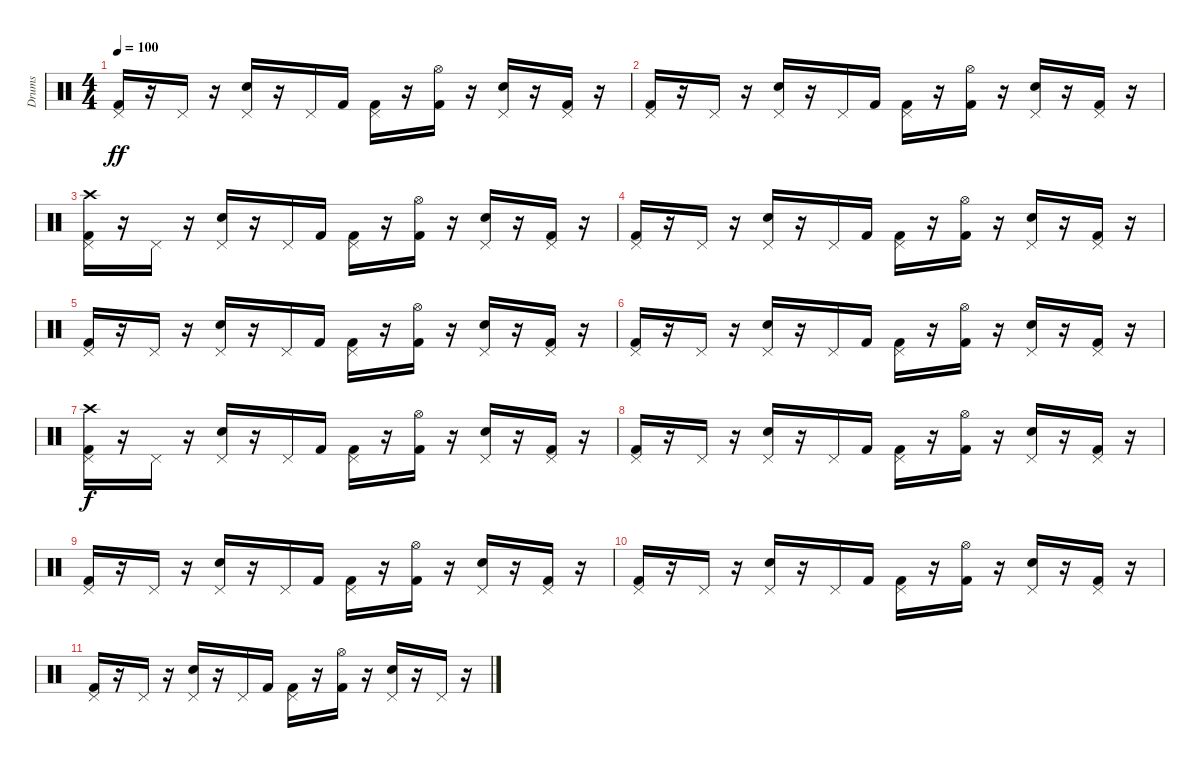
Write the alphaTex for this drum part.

\track ("Drums" "Drums") {instrument percussion}
\staff {score}
\articulation defaults
\ts (4 4)
\tempo 100
\clef neutral
\ks c
("Pedal Hi-Hat (hit)" "Kick (hit) 2").16{dy ff} r.16 "Pedal Hi-Hat (hit)".16 r.16 ("Pedal Hi-Hat (hit)" "Electric Snare (hit)").16 r.16 "Pedal Hi-Hat (hit)".16 "Kick (hit) 2".16 ("Pedal Hi-Hat (hit)" "Kick (hit) 2").16 r.16 ("Hi-Hat (open)" "Kick (hit) 2").16 r.16 ("Pedal Hi-Hat (hit)" "Electric Snare (hit)").16 r.16 ("Pedal Hi-Hat (hit)" "Kick (hit) 2").16 r.16 |
("Pedal Hi-Hat (hit)" "Kick (hit) 2").16 r.16 "Pedal Hi-Hat (hit)".16 r.16 ("Pedal Hi-Hat (hit)" "Electric Snare (hit)").16 r.16 "Pedal Hi-Hat (hit)".16 "Kick (hit) 2".16 ("Pedal Hi-Hat (hit)" "Kick (hit) 2").16 r.16 ("Hi-Hat (open)" "Kick (hit) 2").16 r.16 ("Pedal Hi-Hat (hit)" "Electric Snare (hit)").16 r.16 ("Pedal Hi-Hat (hit)" "Kick (hit) 2").16 r.16 |
("Pedal Hi-Hat (hit)" "Crash high (hit)" "Kick (hit) 2").16 r.16 "Pedal Hi-Hat (hit)".16 r.16 ("Pedal Hi-Hat (hit)" "Electric Snare (hit)").16 r.16 "Pedal Hi-Hat (hit)".16 "Kick (hit) 2".16 ("Pedal Hi-Hat (hit)" "Kick (hit) 2").16 r.16 ("Hi-Hat (open)" "Kick (hit) 2").16 r.16 ("Pedal Hi-Hat (hit)" "Electric Snare (hit)").16 r.16 ("Pedal Hi-Hat (hit)" "Kick (hit) 2").16 r.16 |
("Pedal Hi-Hat (hit)" "Kick (hit) 2").16 r.16 "Pedal Hi-Hat (hit)".16 r.16 ("Pedal Hi-Hat (hit)" "Electric Snare (hit)").16 r.16 "Pedal Hi-Hat (hit)".16 "Kick (hit) 2".16 ("Pedal Hi-Hat (hit)" "Kick (hit) 2").16 r.16 ("Hi-Hat (open)" "Kick (hit) 2").16 r.16 ("Pedal Hi-Hat (hit)" "Electric Snare (hit)").16 r.16 ("Pedal Hi-Hat (hit)" "Kick (hit) 2").16 r.16 |
("Pedal Hi-Hat (hit)" "Kick (hit) 2").16 r.16 "Pedal Hi-Hat (hit)".16 r.16 ("Pedal Hi-Hat (hit)" "Electric Snare (hit)").16 r.16 "Pedal Hi-Hat (hit)".16 "Kick (hit) 2".16 ("Pedal Hi-Hat (hit)" "Kick (hit) 2").16 r.16 ("Hi-Hat (open)" "Kick (hit) 2").16 r.16 ("Pedal Hi-Hat (hit)" "Electric Snare (hit)").16 r.16 ("Pedal Hi-Hat (hit)" "Kick (hit) 2").16 r.16 |
("Pedal Hi-Hat (hit)" "Kick (hit) 2").16 r.16 "Pedal Hi-Hat (hit)".16 r.16 ("Pedal Hi-Hat (hit)" "Electric Snare (hit)").16 r.16 "Pedal Hi-Hat (hit)".16 "Kick (hit) 2".16 ("Pedal Hi-Hat (hit)" "Kick (hit) 2").16 r.16 ("Hi-Hat (open)" "Kick (hit) 2").16 r.16 ("Pedal Hi-Hat (hit)" "Electric Snare (hit)").16 r.16 ("Pedal Hi-Hat (hit)" "Kick (hit) 2").16 r.16 |
("Pedal Hi-Hat (hit)" "Crash high (hit)" "Kick (hit) 2").16{dy f} r.16 "Pedal Hi-Hat (hit)".16 r.16 ("Pedal Hi-Hat (hit)" "Electric Snare (hit)").16 r.16 "Pedal Hi-Hat (hit)".16 "Kick (hit) 2".16 ("Pedal Hi-Hat (hit)" "Kick (hit) 2").16 r.16 ("Hi-Hat (open)" "Kick (hit) 2").16 r.16 ("Pedal Hi-Hat (hit)" "Electric Snare (hit)").16 r.16 ("Pedal Hi-Hat (hit)" "Kick (hit) 2").16 r.16 |
("Pedal Hi-Hat (hit)" "Kick (hit) 2").16 r.16 "Pedal Hi-Hat (hit)".16 r.16 ("Pedal Hi-Hat (hit)" "Electric Snare (hit)").16 r.16 "Pedal Hi-Hat (hit)".16 "Kick (hit) 2".16 ("Pedal Hi-Hat (hit)" "Kick (hit) 2").16 r.16 ("Hi-Hat (open)" "Kick (hit) 2").16 r.16 ("Pedal Hi-Hat (hit)" "Electric Snare (hit)").16 r.16 ("Pedal Hi-Hat (hit)" "Kick (hit) 2").16 r.16 |
("Pedal Hi-Hat (hit)" "Kick (hit) 2").16 r.16 "Pedal Hi-Hat (hit)".16 r.16 ("Pedal Hi-Hat (hit)" "Electric Snare (hit)").16 r.16 "Pedal Hi-Hat (hit)".16 "Kick (hit) 2".16 ("Pedal Hi-Hat (hit)" "Kick (hit) 2").16 r.16 ("Hi-Hat (open)" "Kick (hit) 2").16 r.16 ("Pedal Hi-Hat (hit)" "Electric Snare (hit)").16 r.16 ("Pedal Hi-Hat (hit)" "Kick (hit) 2").16 r.16 |
("Pedal Hi-Hat (hit)" "Kick (hit) 2").16 r.16 "Pedal Hi-Hat (hit)".16 r.16 ("Pedal Hi-Hat (hit)" "Electric Snare (hit)").16 r.16 "Pedal Hi-Hat (hit)".16 "Kick (hit) 2".16 ("Pedal Hi-Hat (hit)" "Kick (hit) 2").16 r.16 ("Hi-Hat (open)" "Kick (hit) 2").16 r.16 ("Pedal Hi-Hat (hit)" "Electric Snare (hit)").16 r.16 ("Pedal Hi-Hat (hit)" "Kick (hit) 2").16 r.16 |
("Pedal Hi-Hat (hit)" "Kick (hit) 2").16 r.16 "Pedal Hi-Hat (hit)".16 r.16 ("Pedal Hi-Hat (hit)" "Electric Snare (hit)").16 r.16 "Pedal Hi-Hat (hit)".16 "Kick (hit) 2".16 ("Pedal Hi-Hat (hit)" "Kick (hit) 2").16 r.16 ("Hi-Hat (open)" "Kick (hit) 2").16 r.16 ("Pedal Hi-Hat (hit)" "Electric Snare (hit)").16 r.16 "Pedal Hi-Hat (hit)".16 r.16
